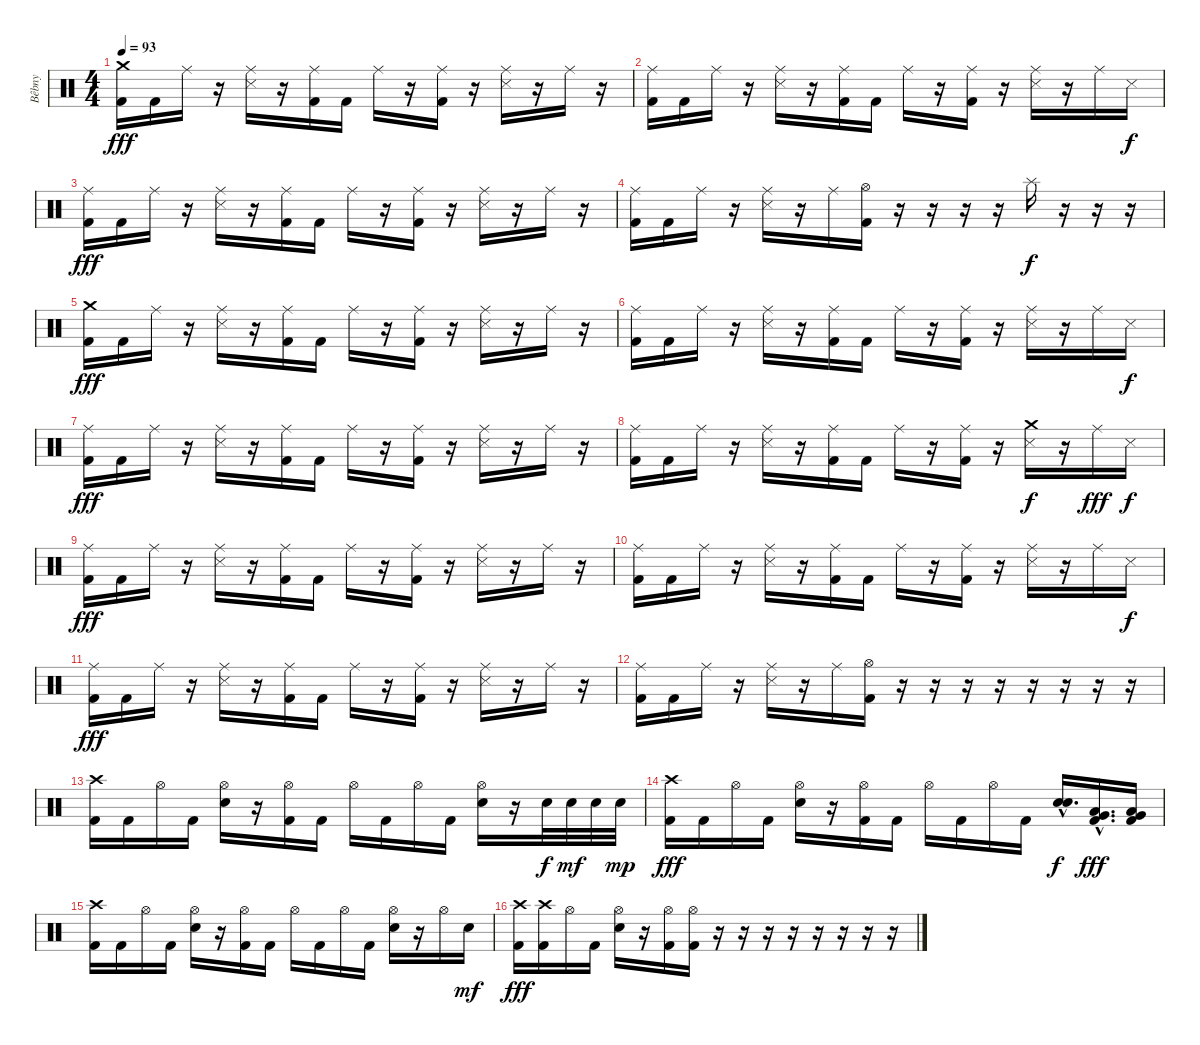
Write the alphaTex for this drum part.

\track ("Bêbny" "Bêbny") {instrument percussion}
\staff {score}
\articulation defaults
\ts (4 4)
\tempo 93
\clef neutral
\ks c
("Crash medium (hit)" "Kick (hit) 2").16{dy fff} "Kick (hit) 2".16 "Ride (middle)".16 r.16 ("Ride (middle)" "Snare (side stick) 3").16 r.16 ("Ride (middle)" "Kick (hit) 2").16 "Kick (hit) 2".16 "Ride (middle)".16 r.16 ("Ride (middle)" "Kick (hit) 2").16 r.16 ("Ride (middle)" "Snare (side stick) 3").16 r.16 "Ride (middle)".16 r.16 |
("Ride (middle)" "Kick (hit) 2").16 "Kick (hit) 2".16 "Ride (middle)".16 r.16 ("Ride (middle)" "Snare (side stick) 3").16 r.16 ("Ride (middle)" "Kick (hit) 2").16 "Kick (hit) 2".16 "Ride (middle)".16 r.16 ("Ride (middle)" "Kick (hit) 2").16 r.16 ("Ride (middle)" "Snare (side stick) 3").16 r.16 "Ride (middle)".16 "Snare (side stick) 3".16{dy f} |
("Ride (middle)" "Kick (hit) 2").16{dy fff} "Kick (hit) 2".16 "Ride (middle)".16 r.16 ("Ride (middle)" "Snare (side stick) 3").16 r.16 ("Ride (middle)" "Kick (hit) 2").16 "Kick (hit) 2".16 "Ride (middle)".16 r.16 ("Ride (middle)" "Kick (hit) 2").16 r.16 ("Ride (middle)" "Snare (side stick) 3").16 r.16 "Ride (middle)".16 r.16 |
("Ride (middle)" "Kick (hit) 2").16 "Kick (hit) 2".16 "Ride (middle)".16 r.16 ("Ride (middle)" "Snare (side stick) 3").16 r.16 "Ride (middle)".16 ("Hi-Hat (open)" "Kick (hit) 2").16 r.16 r.16 r.16 r.16 "Splash (hit)".16{dy f} r.16 r.16 r.16 |
("Crash medium (hit)" "Kick (hit) 2").16{dy fff} "Kick (hit) 2".16 "Ride (middle)".16 r.16 ("Ride (middle)" "Snare (side stick) 3").16 r.16 ("Ride (middle)" "Kick (hit) 2").16 "Kick (hit) 2".16 "Ride (middle)".16 r.16 ("Ride (middle)" "Kick (hit) 2").16 r.16 ("Ride (middle)" "Snare (side stick) 3").16 r.16 "Ride (middle)".16 r.16 |
("Ride (middle)" "Kick (hit) 2").16 "Kick (hit) 2".16 "Ride (middle)".16 r.16 ("Ride (middle)" "Snare (side stick) 3").16 r.16 ("Ride (middle)" "Kick (hit) 2").16 "Kick (hit) 2".16 "Ride (middle)".16 r.16 ("Ride (middle)" "Kick (hit) 2").16 r.16 ("Ride (middle)" "Snare (side stick) 3").16 r.16 "Ride (middle)".16 "Snare (side stick) 3".16{dy f} |
("Ride (middle)" "Kick (hit) 2").16{dy fff} "Kick (hit) 2".16 "Ride (middle)".16 r.16 ("Ride (middle)" "Snare (side stick) 3").16 r.16 ("Ride (middle)" "Kick (hit) 2").16 "Kick (hit) 2".16 "Ride (middle)".16 r.16 ("Ride (middle)" "Kick (hit) 2").16 r.16 ("Ride (middle)" "Snare (side stick) 3").16 r.16 "Ride (middle)".16 r.16 |
("Ride (middle)" "Kick (hit) 2").16 "Kick (hit) 2".16 "Ride (middle)".16 r.16 ("Ride (middle)" "Snare (side stick) 3").16 r.16 ("Ride (middle)" "Kick (hit) 2").16 "Kick (hit) 2".16 "Ride (middle)".16 r.16 ("Ride (middle)" "Kick (hit) 2").16 r.16 ("Crash medium (hit)" "Snare (side stick) 3").16{dy f} r.16 "Ride (middle)".16{dy fff} "Snare (side stick) 3".16{dy f} |
("Ride (middle)" "Kick (hit) 2").16{dy fff} "Kick (hit) 2".16 "Ride (middle)".16 r.16 ("Ride (middle)" "Snare (side stick) 3").16 r.16 ("Ride (middle)" "Kick (hit) 2").16 "Kick (hit) 2".16 "Ride (middle)".16 r.16 ("Ride (middle)" "Kick (hit) 2").16 r.16 ("Ride (middle)" "Snare (side stick) 3").16 r.16 "Ride (middle)".16 r.16 |
("Ride (middle)" "Kick (hit) 2").16 "Kick (hit) 2".16 "Ride (middle)".16 r.16 ("Ride (middle)" "Snare (side stick) 3").16 r.16 ("Ride (middle)" "Kick (hit) 2").16 "Kick (hit) 2".16 "Ride (middle)".16 r.16 ("Ride (middle)" "Kick (hit) 2").16 r.16 ("Ride (middle)" "Snare (side stick) 3").16 r.16 "Ride (middle)".16 "Snare (side stick) 3".16{dy f} |
("Ride (middle)" "Kick (hit) 2").16{dy fff} "Kick (hit) 2".16 "Ride (middle)".16 r.16 ("Ride (middle)" "Snare (side stick) 3").16 r.16 ("Ride (middle)" "Kick (hit) 2").16 "Kick (hit) 2".16 "Ride (middle)".16 r.16 ("Ride (middle)" "Kick (hit) 2").16 r.16 ("Ride (middle)" "Snare (side stick) 3").16 r.16 "Ride (middle)".16 r.16 |
("Ride (middle)" "Kick (hit) 2").16 "Kick (hit) 2".16 "Ride (middle)".16 r.16 ("Ride (middle)" "Snare (side stick) 3").16 r.16 "Ride (middle)".16 ("Hi-Hat (open)" "Kick (hit) 2").16 r.16 r.16 r.16 r.16 r.16 r.16 r.16 r.16 |
("Crash high (hit)" "Kick (hit) 2").16 "Kick (hit) 2".16 "Hi-Hat (open)".16 "Kick (hit) 2".16 ("Hi-Hat (open)" "Electric Snare (hit)").16 r.16 ("Hi-Hat (open)" "Kick (hit) 2").16 "Kick (hit) 2".16 "Hi-Hat (open)".16 "Kick (hit) 2".16 "Hi-Hat (open)".16 "Kick (hit) 2".16 ("Hi-Hat (open)" "Electric Snare (hit)").16 r.16 "Electric Snare (hit)".32{dy f} "Electric Snare (hit)".32{dy mf} "Electric Snare (hit)".32 "Electric Snare (hit)".32{dy mp} |
("Crash high (hit)" "Kick (hit) 2").16{dy fff} "Kick (hit) 2".16 "Hi-Hat (open)".16 "Kick (hit) 2".16 ("Hi-Hat (open)" "Electric Snare (hit)").16 r.16 ("Hi-Hat (open)" "Kick (hit) 2").16 "Kick (hit) 2".16 "Hi-Hat (open)".16 "Kick (hit) 2".16 "Hi-Hat (open)".16 "Kick (hit) 2".16 ("Electric Snare (hit)"{hac} "Electric Snare (hit)"{hac}).16{d bd 120 dy f} ("Very Low Tom (hit)"{hac} "Low Floor Tom (hit)"{hac} "Kick (hit) 2"{hac}).16{d dy fff} ("Very Low Tom (hit)" "Low Floor Tom (hit)" "Kick (hit) 2").16 |
("Crash high (hit)" "Kick (hit) 2").16 "Kick (hit) 2".16 "Hi-Hat (open)".16 "Kick (hit) 2".16 ("Hi-Hat (open)" "Electric Snare (hit)").16 r.16 ("Hi-Hat (open)" "Kick (hit) 2").16 "Kick (hit) 2".16 "Hi-Hat (open)".16 "Kick (hit) 2".16 "Hi-Hat (open)".16 "Kick (hit) 2".16 ("Hi-Hat (open)" "Electric Snare (hit)").16 r.16 "Hi-Hat (open)".16 "Electric Snare (hit)".16{dy mf} |
("Crash high (hit)" "Kick (hit) 2").16{dy fff} ("Crash high (hit)" "Kick (hit) 2").16 "Hi-Hat (open)".16 "Kick (hit) 2".16 ("Hi-Hat (open)" "Electric Snare (hit)").16 r.16 ("Hi-Hat (open)" "Kick (hit) 2").16 ("Hi-Hat (open)" "Kick (hit) 2").16 r.16 r.16 r.16 r.16 r.16 r.16 r.16 r.16
